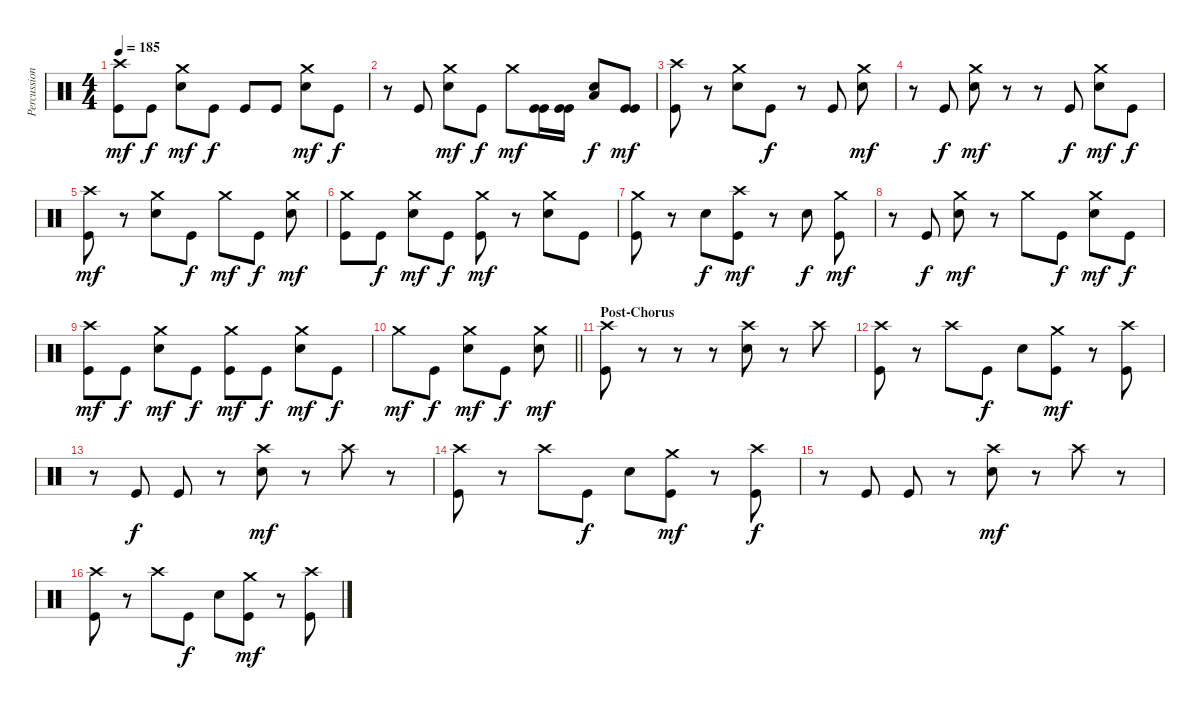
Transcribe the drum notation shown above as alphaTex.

\track ("Percussion" "Percussion") {instrument percussion}
\staff {score}
\articulation defaults
\ts (4 4)
\tempo 185
\clef neutral
\ks c
("Crash high (hit)" "Kick (hit)").8{dy mf} "Kick (hit)".8{dy f} ("Crash medium (hit)" "Electric Snare (hit)").8{dy mf} "Kick (hit)".8{dy f} "Kick (hit)".8 "Kick (hit)".8 ("Crash medium (hit)" "Electric Snare (hit)").8{dy mf} "Kick (hit)".8{dy f} |
r.8 "Kick (hit)".8 ("Crash medium (hit)" "Electric Snare (hit)").8{dy mf} "Kick (hit)".8{dy f} "Crash medium (hit)".8{dy mf} ("Kick (hit)" "Kick (hit)").16 ("Kick (hit)" "Kick (hit)").16 ("Electric Snare (hit)" "Low Floor Tom (hit)").8{dy f} ("Kick (hit)" "Kick (hit)").8{dy mf} |
("Crash high (hit)" "Kick (hit)").8 r.8 ("Crash medium (hit)" "Electric Snare (hit)").8 "Kick (hit)".8{dy f} r.8 "Kick (hit)".8 ("Crash medium (hit)" "Electric Snare (hit)").8{dy mf} |
r.8 "Kick (hit)".8{dy f} ("Crash medium (hit)" "Electric Snare (hit)").8{dy mf} r.8 r.8 "Kick (hit)".8{dy f} ("Crash medium (hit)" "Electric Snare (hit)").8{dy mf} "Kick (hit)".8{dy f} |
("Crash high (hit)" "Kick (hit)").8{dy mf} r.8 ("Crash medium (hit)" "Electric Snare (hit)").8 "Kick (hit)".8{dy f} "Crash medium (hit)".8{dy mf} "Kick (hit)".8{dy f} ("Crash medium (hit)" "Electric Snare (hit)").8{dy mf} |
("Crash medium (hit)" "Kick (hit)").8 "Kick (hit)".8{dy f} ("Crash medium (hit)" "Electric Snare (hit)").8{dy mf} "Kick (hit)".8{dy f} ("Crash medium (hit)" "Kick (hit)").8{dy mf} r.8 ("Crash medium (hit)" "Electric Snare (hit)").8 "Kick (hit)".8 |
("Crash medium (hit)" "Kick (hit)").8 r.8 "Electric Snare (hit)".8{dy f} ("Crash high (hit)" "Kick (hit)").8{dy mf} r.8 "Electric Snare (hit)".8{dy f} ("Crash medium (hit)" "Kick (hit)").8{dy mf} |
r.8 "Kick (hit)".8{dy f} ("Crash medium (hit)" "Electric Snare (hit)").8{dy mf} r.8 "Crash medium (hit)".8 "Kick (hit)".8{dy f} ("Crash medium (hit)" "Electric Snare (hit)").8{dy mf} "Kick (hit)".8{dy f} |
("Crash high (hit)" "Kick (hit)").8{dy mf} "Kick (hit)".8{dy f} ("Crash medium (hit)" "Electric Snare (hit)").8{dy mf} "Kick (hit)".8{dy f} ("Crash medium (hit)" "Kick (hit)").8{dy mf} "Kick (hit)".8{dy f} ("Crash medium (hit)" "Electric Snare (hit)").8{dy mf} "Kick (hit)".8{dy f} |
\barLineRight lightlight "Crash medium (hit)".8{dy mf} "Kick (hit)".8{dy f}
("Crash medium (hit)" "Electric Snare (hit)").8{dy mf} "Kick (hit)".8{dy f} ("Crash medium (hit)" "Electric Snare (hit)").8{dy mf} |
\section ("" "Post-Chorus")
("Crash high (hit)" "Kick (hit)").8 r.8 r.8 r.8 ("Crash high (hit)" "Electric Snare (hit)").8 r.8 "Crash high (hit)".8 |
("Crash high (hit)" "Kick (hit)").8 r.8 "Crash high (hit)".8 "Kick (hit)".8{dy f} "Electric Snare (hit)".8 ("Crash medium (hit)" "Kick (hit)").8{dy mf} r.8 ("Crash high (hit)" "Kick (hit)").8 |
r.8 "Kick (hit)".8{dy f} "Kick (hit)".8 r.8 ("Crash high (hit)" "Electric Snare (hit)").8{dy mf} r.8 "Crash high (hit)".8 r.8 |
("Crash high (hit)" "Kick (hit)").8 r.8 "Crash high (hit)".8 "Kick (hit)".8{dy f} "Electric Snare (hit)".8 ("Crash medium (hit)" "Kick (hit)").8{dy mf} r.8 ("Crash high (hit)" "Kick (hit)").8{dy f} |
r.8 "Kick (hit)".8 "Kick (hit)".8 r.8 ("Crash high (hit)" "Electric Snare (hit)").8{dy mf} r.8 "Crash high (hit)".8 r.8 |
("Crash high (hit)" "Kick (hit)").8 r.8 "Crash high (hit)".8 "Kick (hit)".8{dy f} "Electric Snare (hit)".8 ("Crash medium (hit)" "Kick (hit)").8{dy mf} r.8 ("Crash high (hit)" "Kick (hit)").8
